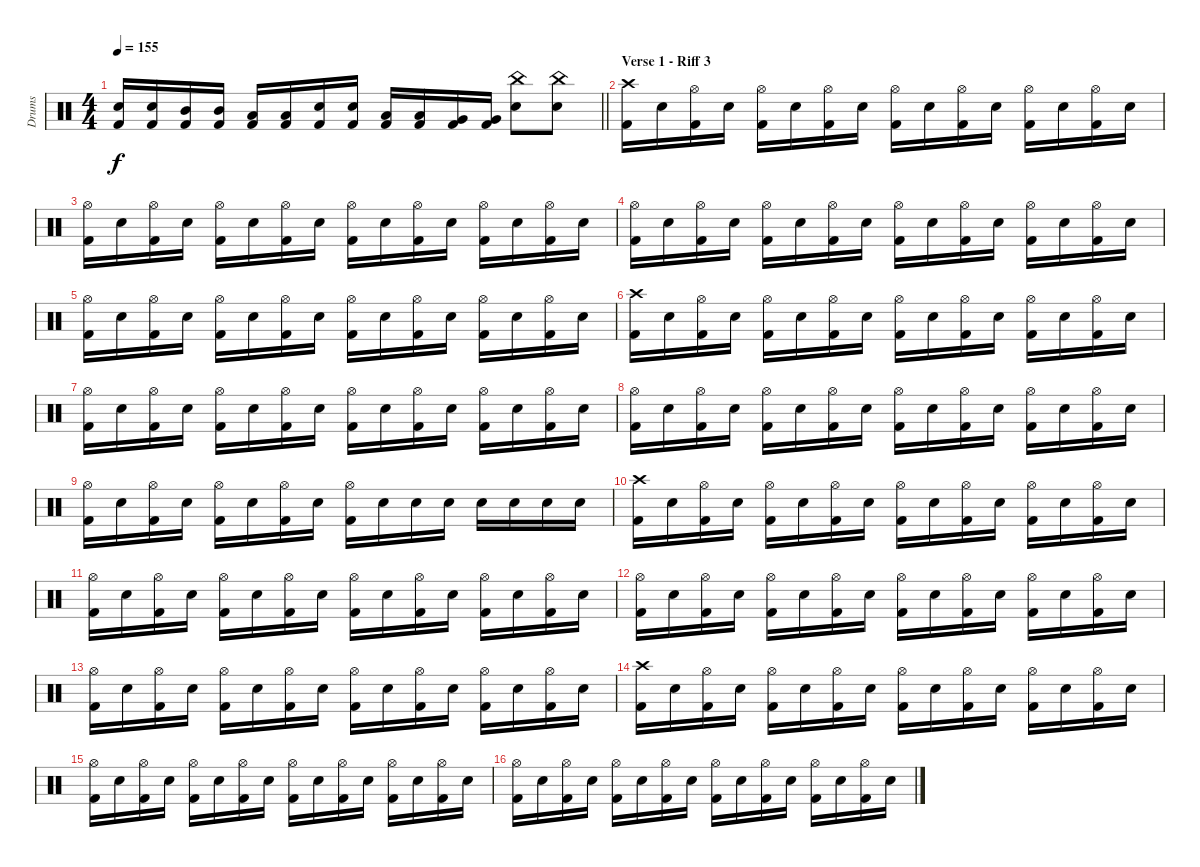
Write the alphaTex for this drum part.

\track ("Drums" "Drums") {instrument percussion}
\staff {score}
\articulation defaults
\ts (4 4)
\tempo 155
\clef neutral
\barLineRight lightlight
\ks c
("Electric Snare (hit)" "Kick (hit) 2").16{dy f} ("Electric Snare (hit)" "Kick (hit) 2").16 ("Mid Tom (hit)" "Kick (hit) 2").16 ("Mid Tom (hit)" "Kick (hit) 2").16 ("Low Tom (hit)" "Kick (hit) 2").16 ("Low Tom (hit)" "Kick (hit) 2").16 ("Electric Snare (hit)" "Kick (hit) 2").16 ("Electric Snare (hit)" "Kick (hit) 2").16 ("Low Tom (hit)" "Kick (hit) 2").16 ("Low Tom (hit)" "Kick (hit) 2").16 ("Very Low Tom (hit)" "Kick (hit) 2").16 ("Very Low Tom (hit)" "Kick (hit) 2").16 ("China (hit)" "Electric Snare (hit)").8 ("China (hit)" "Electric Snare (hit)").8 |
\section ("" "Verse 1 - Riff 3")
("Crash high (hit)" "Kick (hit) 2").16 "Electric Snare (hit)".16 ("Hi-Hat (open)" "Kick (hit) 2").16 "Electric Snare (hit)".16 ("Hi-Hat (open)" "Kick (hit) 2").16 "Electric Snare (hit)".16 ("Hi-Hat (open)" "Kick (hit) 2").16 "Electric Snare (hit)".16 ("Hi-Hat (open)" "Kick (hit) 2").16 "Electric Snare (hit)".16 ("Hi-Hat (open)" "Kick (hit) 2").16 "Electric Snare (hit)".16 ("Hi-Hat (open)" "Kick (hit) 2").16 "Electric Snare (hit)".16 ("Hi-Hat (open)" "Kick (hit) 2").16 "Electric Snare (hit)".16 |
("Hi-Hat (open)" "Kick (hit) 2").16 "Electric Snare (hit)".16 ("Hi-Hat (open)" "Kick (hit) 2").16 "Electric Snare (hit)".16 ("Hi-Hat (open)" "Kick (hit) 2").16 "Electric Snare (hit)".16 ("Hi-Hat (open)" "Kick (hit) 2").16 "Electric Snare (hit)".16 ("Hi-Hat (open)" "Kick (hit) 2").16 "Electric Snare (hit)".16 ("Hi-Hat (open)" "Kick (hit) 2").16 "Electric Snare (hit)".16 ("Hi-Hat (open)" "Kick (hit) 2").16 "Electric Snare (hit)".16 ("Hi-Hat (open)" "Kick (hit) 2").16 "Electric Snare (hit)".16 |
("Hi-Hat (open)" "Kick (hit) 2").16 "Electric Snare (hit)".16 ("Hi-Hat (open)" "Kick (hit) 2").16 "Electric Snare (hit)".16 ("Hi-Hat (open)" "Kick (hit) 2").16 "Electric Snare (hit)".16 ("Hi-Hat (open)" "Kick (hit) 2").16 "Electric Snare (hit)".16 ("Hi-Hat (open)" "Kick (hit) 2").16 "Electric Snare (hit)".16 ("Hi-Hat (open)" "Kick (hit) 2").16 "Electric Snare (hit)".16 ("Hi-Hat (open)" "Kick (hit) 2").16 "Electric Snare (hit)".16 ("Hi-Hat (open)" "Kick (hit) 2").16 "Electric Snare (hit)".16 |
("Hi-Hat (open)" "Kick (hit) 2").16 "Electric Snare (hit)".16 ("Hi-Hat (open)" "Kick (hit) 2").16 "Electric Snare (hit)".16 ("Hi-Hat (open)" "Kick (hit) 2").16 "Electric Snare (hit)".16 ("Hi-Hat (open)" "Kick (hit) 2").16 "Electric Snare (hit)".16 ("Hi-Hat (open)" "Kick (hit) 2").16 "Electric Snare (hit)".16 ("Hi-Hat (open)" "Kick (hit) 2").16 "Electric Snare (hit)".16 ("Hi-Hat (open)" "Kick (hit) 2").16 "Electric Snare (hit)".16 ("Hi-Hat (open)" "Kick (hit) 2").16 "Electric Snare (hit)".16 |
("Crash high (hit)" "Kick (hit) 2").16 "Electric Snare (hit)".16 ("Hi-Hat (open)" "Kick (hit) 2").16 "Electric Snare (hit)".16 ("Hi-Hat (open)" "Kick (hit) 2").16 "Electric Snare (hit)".16 ("Hi-Hat (open)" "Kick (hit) 2").16 "Electric Snare (hit)".16 ("Hi-Hat (open)" "Kick (hit) 2").16 "Electric Snare (hit)".16 ("Hi-Hat (open)" "Kick (hit) 2").16 "Electric Snare (hit)".16 ("Hi-Hat (open)" "Kick (hit) 2").16 "Electric Snare (hit)".16 ("Hi-Hat (open)" "Kick (hit) 2").16 "Electric Snare (hit)".16 |
("Hi-Hat (open)" "Kick (hit) 2").16 "Electric Snare (hit)".16 ("Hi-Hat (open)" "Kick (hit) 2").16 "Electric Snare (hit)".16 ("Hi-Hat (open)" "Kick (hit) 2").16 "Electric Snare (hit)".16 ("Hi-Hat (open)" "Kick (hit) 2").16 "Electric Snare (hit)".16 ("Hi-Hat (open)" "Kick (hit) 2").16 "Electric Snare (hit)".16 ("Hi-Hat (open)" "Kick (hit) 2").16 "Electric Snare (hit)".16 ("Hi-Hat (open)" "Kick (hit) 2").16 "Electric Snare (hit)".16 ("Hi-Hat (open)" "Kick (hit) 2").16 "Electric Snare (hit)".16 |
("Hi-Hat (open)" "Kick (hit) 2").16 "Electric Snare (hit)".16 ("Hi-Hat (open)" "Kick (hit) 2").16 "Electric Snare (hit)".16 ("Hi-Hat (open)" "Kick (hit) 2").16 "Electric Snare (hit)".16 ("Hi-Hat (open)" "Kick (hit) 2").16 "Electric Snare (hit)".16 ("Hi-Hat (open)" "Kick (hit) 2").16 "Electric Snare (hit)".16 ("Hi-Hat (open)" "Kick (hit) 2").16 "Electric Snare (hit)".16 ("Hi-Hat (open)" "Kick (hit) 2").16 "Electric Snare (hit)".16 ("Hi-Hat (open)" "Kick (hit) 2").16 "Electric Snare (hit)".16 |
("Hi-Hat (open)" "Kick (hit) 2").16 "Electric Snare (hit)".16 ("Hi-Hat (open)" "Kick (hit) 2").16 "Electric Snare (hit)".16 ("Hi-Hat (open)" "Kick (hit) 2").16 "Electric Snare (hit)".16 ("Hi-Hat (open)" "Kick (hit) 2").16 "Electric Snare (hit)".16 ("Hi-Hat (open)" "Kick (hit) 2").16 "Electric Snare (hit)".16 "Electric Snare (hit)".16 "Electric Snare (hit)".16 "Electric Snare (hit)".16 "Electric Snare (hit)".16 "Electric Snare (hit)".16 "Electric Snare (hit)".16 |
("Crash high (hit)" "Kick (hit) 2").16 "Electric Snare (hit)".16 ("Hi-Hat (open)" "Kick (hit) 2").16 "Electric Snare (hit)".16 ("Hi-Hat (open)" "Kick (hit) 2").16 "Electric Snare (hit)".16 ("Hi-Hat (open)" "Kick (hit) 2").16 "Electric Snare (hit)".16 ("Hi-Hat (open)" "Kick (hit) 2").16 "Electric Snare (hit)".16 ("Hi-Hat (open)" "Kick (hit) 2").16 "Electric Snare (hit)".16 ("Hi-Hat (open)" "Kick (hit) 2").16 "Electric Snare (hit)".16 ("Hi-Hat (open)" "Kick (hit) 2").16 "Electric Snare (hit)".16 |
("Hi-Hat (open)" "Kick (hit) 2").16 "Electric Snare (hit)".16 ("Hi-Hat (open)" "Kick (hit) 2").16 "Electric Snare (hit)".16 ("Hi-Hat (open)" "Kick (hit) 2").16 "Electric Snare (hit)".16 ("Hi-Hat (open)" "Kick (hit) 2").16 "Electric Snare (hit)".16 ("Hi-Hat (open)" "Kick (hit) 2").16 "Electric Snare (hit)".16 ("Hi-Hat (open)" "Kick (hit) 2").16 "Electric Snare (hit)".16 ("Hi-Hat (open)" "Kick (hit) 2").16 "Electric Snare (hit)".16 ("Hi-Hat (open)" "Kick (hit) 2").16 "Electric Snare (hit)".16 |
("Hi-Hat (open)" "Kick (hit) 2").16 "Electric Snare (hit)".16 ("Hi-Hat (open)" "Kick (hit) 2").16 "Electric Snare (hit)".16 ("Hi-Hat (open)" "Kick (hit) 2").16 "Electric Snare (hit)".16 ("Hi-Hat (open)" "Kick (hit) 2").16 "Electric Snare (hit)".16 ("Hi-Hat (open)" "Kick (hit) 2").16 "Electric Snare (hit)".16 ("Hi-Hat (open)" "Kick (hit) 2").16 "Electric Snare (hit)".16 ("Hi-Hat (open)" "Kick (hit) 2").16 "Electric Snare (hit)".16 ("Hi-Hat (open)" "Kick (hit) 2").16 "Electric Snare (hit)".16 |
("Hi-Hat (open)" "Kick (hit) 2").16 "Electric Snare (hit)".16 ("Hi-Hat (open)" "Kick (hit) 2").16 "Electric Snare (hit)".16 ("Hi-Hat (open)" "Kick (hit) 2").16 "Electric Snare (hit)".16 ("Hi-Hat (open)" "Kick (hit) 2").16 "Electric Snare (hit)".16 ("Hi-Hat (open)" "Kick (hit) 2").16 "Electric Snare (hit)".16 ("Hi-Hat (open)" "Kick (hit) 2").16 "Electric Snare (hit)".16 ("Hi-Hat (open)" "Kick (hit) 2").16 "Electric Snare (hit)".16 ("Hi-Hat (open)" "Kick (hit) 2").16 "Electric Snare (hit)".16 |
("Crash high (hit)" "Kick (hit) 2").16 "Electric Snare (hit)".16 ("Hi-Hat (open)" "Kick (hit) 2").16 "Electric Snare (hit)".16 ("Hi-Hat (open)" "Kick (hit) 2").16 "Electric Snare (hit)".16 ("Hi-Hat (open)" "Kick (hit) 2").16 "Electric Snare (hit)".16 ("Hi-Hat (open)" "Kick (hit) 2").16 "Electric Snare (hit)".16 ("Hi-Hat (open)" "Kick (hit) 2").16 "Electric Snare (hit)".16 ("Hi-Hat (open)" "Kick (hit) 2").16 "Electric Snare (hit)".16 ("Hi-Hat (open)" "Kick (hit) 2").16 "Electric Snare (hit)".16 |
("Hi-Hat (open)" "Kick (hit) 2").16 "Electric Snare (hit)".16 ("Hi-Hat (open)" "Kick (hit) 2").16 "Electric Snare (hit)".16 ("Hi-Hat (open)" "Kick (hit) 2").16 "Electric Snare (hit)".16 ("Hi-Hat (open)" "Kick (hit) 2").16 "Electric Snare (hit)".16 ("Hi-Hat (open)" "Kick (hit) 2").16 "Electric Snare (hit)".16 ("Hi-Hat (open)" "Kick (hit) 2").16 "Electric Snare (hit)".16 ("Hi-Hat (open)" "Kick (hit) 2").16 "Electric Snare (hit)".16 ("Hi-Hat (open)" "Kick (hit) 2").16 "Electric Snare (hit)".16 |
("Hi-Hat (open)" "Kick (hit) 2").16 "Electric Snare (hit)".16 ("Hi-Hat (open)" "Kick (hit) 2").16 "Electric Snare (hit)".16 ("Hi-Hat (open)" "Kick (hit) 2").16 "Electric Snare (hit)".16 ("Hi-Hat (open)" "Kick (hit) 2").16 "Electric Snare (hit)".16 ("Hi-Hat (open)" "Kick (hit) 2").16 "Electric Snare (hit)".16 ("Hi-Hat (open)" "Kick (hit) 2").16 "Electric Snare (hit)".16 ("Hi-Hat (open)" "Kick (hit) 2").16 "Electric Snare (hit)".16 ("Hi-Hat (open)" "Kick (hit) 2").16 "Electric Snare (hit)".16
